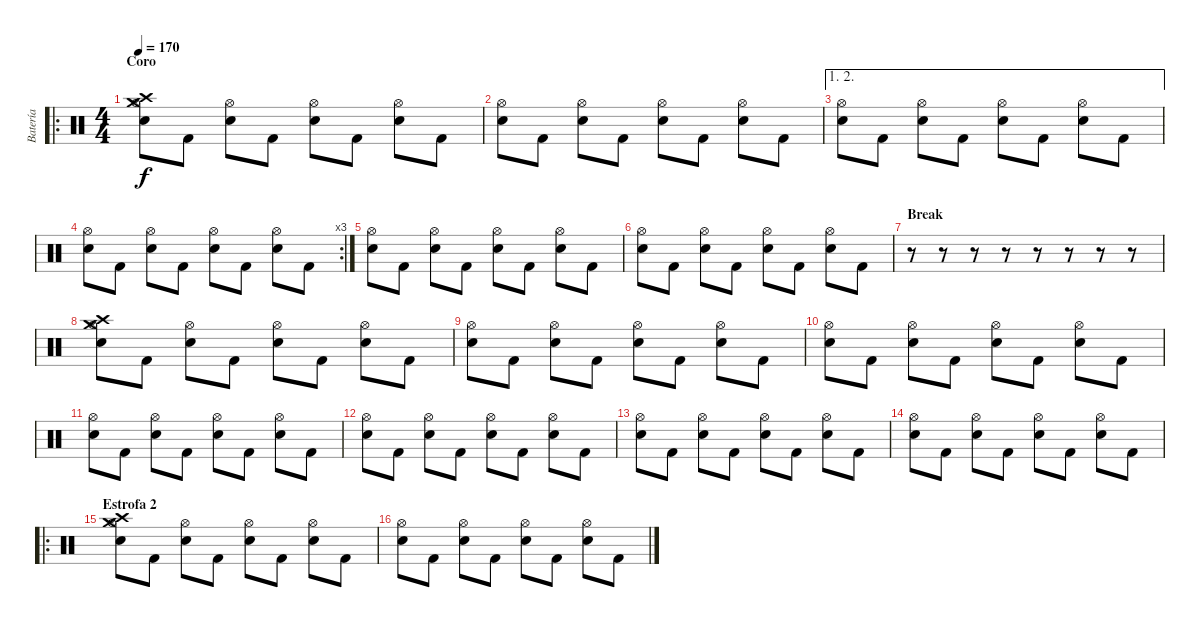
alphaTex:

\track ("Batería" "Batería") {instrument percussion}
\staff {score}
\articulation defaults
\ro
\ts (4 4)
\section ("" "Coro")
\tempo 170
\clef neutral
\ks c
("Crash high (hit)" "Crash medium (hit)" "Snare (hit) 2" "Hi-Hat (open)").8{dy f} "Kick (hit) 2".8 ("Snare (hit) 2" "Hi-Hat (open)").8 "Kick (hit) 2".8 ("Snare (hit) 2" "Hi-Hat (open)").8 "Kick (hit) 2".8 ("Snare (hit) 2" "Hi-Hat (open)").8 "Kick (hit) 2".8 |
("Snare (hit) 2" "Hi-Hat (open)").8 "Kick (hit) 2".8 ("Snare (hit) 2" "Hi-Hat (open)").8 "Kick (hit) 2".8 ("Snare (hit) 2" "Hi-Hat (open)").8 "Kick (hit) 2".8 ("Snare (hit) 2" "Hi-Hat (open)").8 "Kick (hit) 2".8 |
\ae (1 2)
("Snare (hit) 2" "Hi-Hat (open)").8 "Kick (hit) 2".8 ("Snare (hit) 2" "Hi-Hat (open)").8 "Kick (hit) 2".8 ("Snare (hit) 2" "Hi-Hat (open)").8 "Kick (hit) 2".8 ("Snare (hit) 2" "Hi-Hat (open)").8 "Kick (hit) 2".8 |
\rc 3
("Snare (hit) 2" "Hi-Hat (open)").8 "Kick (hit) 2".8 ("Snare (hit) 2" "Hi-Hat (open)").8 "Kick (hit) 2".8 ("Snare (hit) 2" "Hi-Hat (open)").8 "Kick (hit) 2".8 ("Snare (hit) 2" "Hi-Hat (open)").8 "Kick (hit) 2".8 |
("Snare (hit) 2" "Hi-Hat (open)").8 "Kick (hit) 2".8 ("Snare (hit) 2" "Hi-Hat (open)").8 "Kick (hit) 2".8 ("Snare (hit) 2" "Hi-Hat (open)").8 "Kick (hit) 2".8 ("Snare (hit) 2" "Hi-Hat (open)").8 "Kick (hit) 2".8 |
("Snare (hit) 2" "Hi-Hat (open)").8 "Kick (hit) 2".8 ("Snare (hit) 2" "Hi-Hat (open)").8 "Kick (hit) 2".8 ("Snare (hit) 2" "Hi-Hat (open)").8 "Kick (hit) 2".8 ("Snare (hit) 2" "Hi-Hat (open)").8 "Kick (hit) 2".8 |
\section ("" "Break")
r.8 r.8 r.8 r.8 r.8 r.8 r.8 r.8 |
("Crash high (hit)" "Crash medium (hit)" "Snare (hit) 2" "Hi-Hat (open)").8 "Kick (hit) 2".8 ("Snare (hit) 2" "Hi-Hat (open)").8 "Kick (hit) 2".8 ("Snare (hit) 2" "Hi-Hat (open)").8 "Kick (hit) 2".8 ("Snare (hit) 2" "Hi-Hat (open)").8 "Kick (hit) 2".8 |
("Snare (hit) 2" "Hi-Hat (open)").8 "Kick (hit) 2".8 ("Snare (hit) 2" "Hi-Hat (open)").8 "Kick (hit) 2".8 ("Snare (hit) 2" "Hi-Hat (open)").8 "Kick (hit) 2".8 ("Snare (hit) 2" "Hi-Hat (open)").8 "Kick (hit) 2".8 |
("Snare (hit) 2" "Hi-Hat (open)").8 "Kick (hit) 2".8 ("Snare (hit) 2" "Hi-Hat (open)").8 "Kick (hit) 2".8 ("Snare (hit) 2" "Hi-Hat (open)").8 "Kick (hit) 2".8 ("Snare (hit) 2" "Hi-Hat (open)").8 "Kick (hit) 2".8 |
("Snare (hit) 2" "Hi-Hat (open)").8 "Kick (hit) 2".8 ("Snare (hit) 2" "Hi-Hat (open)").8 "Kick (hit) 2".8 ("Snare (hit) 2" "Hi-Hat (open)").8 "Kick (hit) 2".8 ("Snare (hit) 2" "Hi-Hat (open)").8 "Kick (hit) 2".8 |
("Snare (hit) 2" "Hi-Hat (open)").8 "Kick (hit) 2".8 ("Snare (hit) 2" "Hi-Hat (open)").8 "Kick (hit) 2".8 ("Snare (hit) 2" "Hi-Hat (open)").8 "Kick (hit) 2".8 ("Snare (hit) 2" "Hi-Hat (open)").8 "Kick (hit) 2".8 |
("Snare (hit) 2" "Hi-Hat (open)").8 "Kick (hit) 2".8 ("Snare (hit) 2" "Hi-Hat (open)").8 "Kick (hit) 2".8 ("Snare (hit) 2" "Hi-Hat (open)").8 "Kick (hit) 2".8 ("Snare (hit) 2" "Hi-Hat (open)").8 "Kick (hit) 2".8 |
("Snare (hit) 2" "Hi-Hat (open)").8 "Kick (hit) 2".8 ("Snare (hit) 2" "Hi-Hat (open)").8 "Kick (hit) 2".8 ("Snare (hit) 2" "Hi-Hat (open)").8 "Kick (hit) 2".8 ("Snare (hit) 2" "Hi-Hat (open)").8 "Kick (hit) 2".8 |
\ro
\section ("" "Estrofa 2")
("Crash high (hit)" "Crash medium (hit)" "Snare (hit) 2" "Hi-Hat (open)").8 "Kick (hit) 2".8 ("Snare (hit) 2" "Hi-Hat (open)").8 "Kick (hit) 2".8 ("Snare (hit) 2" "Hi-Hat (open)").8 "Kick (hit) 2".8 ("Snare (hit) 2" "Hi-Hat (open)").8 "Kick (hit) 2".8 |
("Snare (hit) 2" "Hi-Hat (open)").8 "Kick (hit) 2".8 ("Snare (hit) 2" "Hi-Hat (open)").8 "Kick (hit) 2".8 ("Snare (hit) 2" "Hi-Hat (open)").8 "Kick (hit) 2".8 ("Snare (hit) 2" "Hi-Hat (open)").8 "Kick (hit) 2".8
